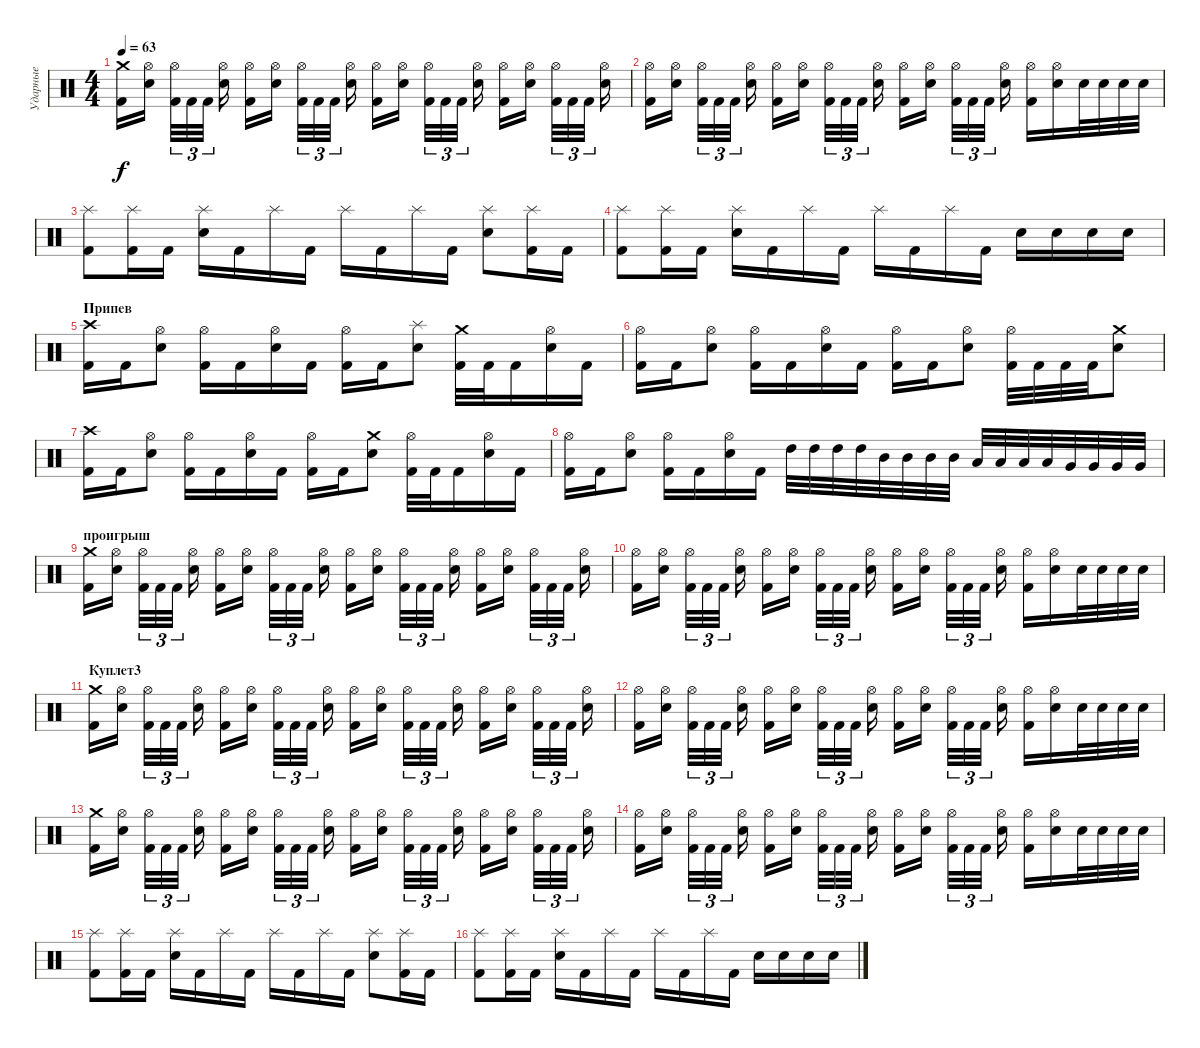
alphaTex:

\track ("Ударные" "Ударные") {instrument percussion}
\staff {score}
\articulation defaults
\ts (4 4)
\tempo 63
\clef neutral
\ks c
("Kick (hit) 2" "Crash medium (hit)").16{dy f} ("Snare (hit) 2" "Hi-Hat (open)").16 ("Kick (hit) 2" "Hi-Hat (open)").32{tu (3 2)} "Kick (hit) 2".32{tu (3 2)} "Kick (hit) 2".32{tu (3 2)} ("Snare (hit) 2" "Hi-Hat (open)").16 ("Kick (hit) 2" "Hi-Hat (open)").16 ("Snare (hit) 2" "Hi-Hat (open)").16 ("Kick (hit) 2" "Hi-Hat (open)").32{tu (3 2)} "Kick (hit) 2".32{tu (3 2)} "Kick (hit) 2".32{tu (3 2)} ("Snare (hit) 2" "Hi-Hat (open)").16 ("Kick (hit) 2" "Hi-Hat (open)").16 ("Snare (hit) 2" "Hi-Hat (open)").16 ("Kick (hit) 2" "Hi-Hat (open)").32{tu (3 2)} "Kick (hit) 2".32{tu (3 2)} "Kick (hit) 2".32{tu (3 2)} ("Snare (hit) 2" "Hi-Hat (open)").16 ("Kick (hit) 2" "Hi-Hat (open)").16 ("Snare (hit) 2" "Hi-Hat (open)").16 ("Kick (hit) 2" "Hi-Hat (open)").32{tu (3 2)} "Kick (hit) 2".32{tu (3 2)} "Kick (hit) 2".32{tu (3 2)} ("Snare (hit) 2" "Hi-Hat (open)").16 |
("Kick (hit) 2" "Hi-Hat (open)").16 ("Snare (hit) 2" "Hi-Hat (open)").16 ("Kick (hit) 2" "Hi-Hat (open)").32{tu (3 2)} "Kick (hit) 2".32{tu (3 2)} "Kick (hit) 2".32{tu (3 2)} ("Snare (hit) 2" "Hi-Hat (open)").16 ("Kick (hit) 2" "Hi-Hat (open)").16 ("Snare (hit) 2" "Hi-Hat (open)").16 ("Kick (hit) 2" "Hi-Hat (open)").32{tu (3 2)} "Kick (hit) 2".32{tu (3 2)} "Kick (hit) 2".32{tu (3 2)} ("Snare (hit) 2" "Hi-Hat (open)").16 ("Kick (hit) 2" "Hi-Hat (open)").16 ("Snare (hit) 2" "Hi-Hat (open)").16 ("Kick (hit) 2" "Hi-Hat (open)").32{tu (3 2)} "Kick (hit) 2".32{tu (3 2)} "Kick (hit) 2".32{tu (3 2)} ("Snare (hit) 2" "Hi-Hat (open)").16 ("Kick (hit) 2" "Hi-Hat (open)").16 ("Snare (hit) 2" "Hi-Hat (open)").16 "Snare (hit) 2".32 "Snare (hit) 2".32 "Snare (hit) 2".32 "Snare (hit) 2".32 |
("Kick (hit) 2" "Splash (hit)").8 ("Kick (hit) 2" "Splash (hit)").16 "Kick (hit) 2".16 ("Snare (hit) 2" "Splash (hit)").16 "Kick (hit) 2".16 "Splash (hit)".16 "Kick (hit) 2".16 "Splash (hit)".16 "Kick (hit) 2".16 "Splash (hit)".16 "Kick (hit) 2".16 ("Snare (hit) 2" "Splash (hit)").8 ("Kick (hit) 2" "Splash (hit)").16 "Kick (hit) 2".16 |
("Kick (hit) 2" "Splash (hit)").8 ("Kick (hit) 2" "Splash (hit)").16 "Kick (hit) 2".16 ("Snare (hit) 2" "Splash (hit)").16 "Kick (hit) 2".16 "Splash (hit)".16 "Kick (hit) 2".16 "Splash (hit)".16 "Kick (hit) 2".16 "Splash (hit)".16 "Kick (hit) 2".16 "Snare (hit) 2".16 "Snare (hit) 2".16 "Snare (hit) 2".16 "Snare (hit) 2".16 |
\section ("" "Припев")
("Kick (hit) 2" "Crash high (hit)").16 "Kick (hit) 2".16 ("Snare (hit) 2" "Hi-Hat (open)").8 ("Kick (hit) 2" "Hi-Hat (open)").16 "Kick (hit) 2".16 ("Snare (hit) 2" "Hi-Hat (open)").16 "Kick (hit) 2".16 ("Kick (hit) 2" "Hi-Hat (open)").16 "Kick (hit) 2".16 ("Snare (hit) 2" "Splash (hit)").8 ("Kick (hit) 2" "Crash medium (hit)").32 "Kick (hit) 2".32 "Kick (hit) 2".16 ("Snare (hit) 2" "Hi-Hat (open)").16 "Kick (hit) 2".16 |
("Kick (hit) 2" "Hi-Hat (open)").16 "Kick (hit) 2".16 ("Snare (hit) 2" "Hi-Hat (open)").8 ("Kick (hit) 2" "Hi-Hat (open)").16 "Kick (hit) 2".16 ("Snare (hit) 2" "Hi-Hat (open)").16 "Kick (hit) 2".16 ("Kick (hit) 2" "Hi-Hat (open)").16 "Kick (hit) 2".16 ("Snare (hit) 2" "Hi-Hat (open)").8 ("Kick (hit) 2" "Hi-Hat (open)").32 "Kick (hit) 2".32 "Kick (hit) 2".32 "Kick (hit) 2".32 ("Snare (hit) 2" "Crash medium (hit)").8 |
("Kick (hit) 2" "Crash high (hit)").16 "Kick (hit) 2".16 ("Snare (hit) 2" "Hi-Hat (open)").8 ("Kick (hit) 2" "Hi-Hat (open)").16 "Kick (hit) 2".16 ("Snare (hit) 2" "Hi-Hat (open)").16 "Kick (hit) 2".16 ("Kick (hit) 2" "Hi-Hat (open)").16 "Kick (hit) 2".16 ("Snare (hit) 2" "Crash medium (hit)").8 ("Kick (hit) 2" "Hi-Hat (open)").32 "Kick (hit) 2".32 "Kick (hit) 2".16 ("Snare (hit) 2" "Hi-Hat (open)").16 "Kick (hit) 2".16 |
("Kick (hit) 2" "Hi-Hat (open)").16 "Kick (hit) 2".16 ("Snare (hit) 2" "Hi-Hat (open)").8 ("Kick (hit) 2" "Hi-Hat (open)").16 "Kick (hit) 2".16 ("Snare (hit) 2" "Hi-Hat (open)").16 "Kick (hit) 2".16 "High Tom (hit)".32 "High Tom (hit)".32 "High Tom (hit)".32 "High Tom (hit)".32 "Mid Tom (hit)".32 "Mid Tom (hit)".32 "Mid Tom (hit)".32 "Mid Tom (hit)".32 "Low Tom (hit)".32 "Low Tom (hit)".32 "Low Tom (hit)".32 "Low Tom (hit)".32 "Very Low Tom (hit)".32 "Very Low Tom (hit)".32 "Very Low Tom (hit)".32 "Very Low Tom (hit)".32 |
\section ("" "проигрыш")
("Kick (hit) 2" "Crash medium (hit)").16 ("Snare (hit) 2" "Hi-Hat (open)").16 ("Kick (hit) 2" "Hi-Hat (open)").32{tu (3 2)} "Kick (hit) 2".32{tu (3 2)} "Kick (hit) 2".32{tu (3 2)} ("Snare (hit) 2" "Hi-Hat (open)").16 ("Kick (hit) 2" "Hi-Hat (open)").16 ("Snare (hit) 2" "Hi-Hat (open)").16 ("Kick (hit) 2" "Hi-Hat (open)").32{tu (3 2)} "Kick (hit) 2".32{tu (3 2)} "Kick (hit) 2".32{tu (3 2)} ("Snare (hit) 2" "Hi-Hat (open)").16 ("Kick (hit) 2" "Hi-Hat (open)").16 ("Snare (hit) 2" "Hi-Hat (open)").16 ("Kick (hit) 2" "Hi-Hat (open)").32{tu (3 2)} "Kick (hit) 2".32{tu (3 2)} "Kick (hit) 2".32{tu (3 2)} ("Snare (hit) 2" "Hi-Hat (open)").16 ("Kick (hit) 2" "Hi-Hat (open)").16 ("Snare (hit) 2" "Hi-Hat (open)").16 ("Kick (hit) 2" "Hi-Hat (open)").32{tu (3 2)} "Kick (hit) 2".32{tu (3 2)} "Kick (hit) 2".32{tu (3 2)} ("Snare (hit) 2" "Hi-Hat (open)").16 |
("Kick (hit) 2" "Hi-Hat (open)").16 ("Snare (hit) 2" "Hi-Hat (open)").16 ("Kick (hit) 2" "Hi-Hat (open)").32{tu (3 2)} "Kick (hit) 2".32{tu (3 2)} "Kick (hit) 2".32{tu (3 2)} ("Snare (hit) 2" "Hi-Hat (open)").16 ("Kick (hit) 2" "Hi-Hat (open)").16 ("Snare (hit) 2" "Hi-Hat (open)").16 ("Kick (hit) 2" "Hi-Hat (open)").32{tu (3 2)} "Kick (hit) 2".32{tu (3 2)} "Kick (hit) 2".32{tu (3 2)} ("Snare (hit) 2" "Hi-Hat (open)").16 ("Kick (hit) 2" "Hi-Hat (open)").16 ("Snare (hit) 2" "Hi-Hat (open)").16 ("Kick (hit) 2" "Hi-Hat (open)").32{tu (3 2)} "Kick (hit) 2".32{tu (3 2)} "Kick (hit) 2".32{tu (3 2)} ("Snare (hit) 2" "Hi-Hat (open)").16 ("Kick (hit) 2" "Hi-Hat (open)").16 ("Snare (hit) 2" "Hi-Hat (open)").16 "Snare (hit) 2".32 "Snare (hit) 2".32 "Snare (hit) 2".32 "Snare (hit) 2".32 |
\section ("" "Куплет3")
("Kick (hit) 2" "Crash medium (hit)").16 ("Snare (hit) 2" "Hi-Hat (open)").16 ("Kick (hit) 2" "Hi-Hat (open)").32{tu (3 2)} "Kick (hit) 2".32{tu (3 2)} "Kick (hit) 2".32{tu (3 2)} ("Snare (hit) 2" "Hi-Hat (open)").16 ("Kick (hit) 2" "Hi-Hat (open)").16 ("Snare (hit) 2" "Hi-Hat (open)").16 ("Kick (hit) 2" "Hi-Hat (open)").32{tu (3 2)} "Kick (hit) 2".32{tu (3 2)} "Kick (hit) 2".32{tu (3 2)} ("Snare (hit) 2" "Hi-Hat (open)").16 ("Kick (hit) 2" "Hi-Hat (open)").16 ("Snare (hit) 2" "Hi-Hat (open)").16 ("Kick (hit) 2" "Hi-Hat (open)").32{tu (3 2)} "Kick (hit) 2".32{tu (3 2)} "Kick (hit) 2".32{tu (3 2)} ("Snare (hit) 2" "Hi-Hat (open)").16 ("Kick (hit) 2" "Hi-Hat (open)").16 ("Snare (hit) 2" "Hi-Hat (open)").16 ("Kick (hit) 2" "Hi-Hat (open)").32{tu (3 2)} "Kick (hit) 2".32{tu (3 2)} "Kick (hit) 2".32{tu (3 2)} ("Snare (hit) 2" "Hi-Hat (open)").16 |
("Kick (hit) 2" "Hi-Hat (open)").16 ("Snare (hit) 2" "Hi-Hat (open)").16 ("Kick (hit) 2" "Hi-Hat (open)").32{tu (3 2)} "Kick (hit) 2".32{tu (3 2)} "Kick (hit) 2".32{tu (3 2)} ("Snare (hit) 2" "Hi-Hat (open)").16 ("Kick (hit) 2" "Hi-Hat (open)").16 ("Snare (hit) 2" "Hi-Hat (open)").16 ("Kick (hit) 2" "Hi-Hat (open)").32{tu (3 2)} "Kick (hit) 2".32{tu (3 2)} "Kick (hit) 2".32{tu (3 2)} ("Snare (hit) 2" "Hi-Hat (open)").16 ("Kick (hit) 2" "Hi-Hat (open)").16 ("Snare (hit) 2" "Hi-Hat (open)").16 ("Kick (hit) 2" "Hi-Hat (open)").32{tu (3 2)} "Kick (hit) 2".32{tu (3 2)} "Kick (hit) 2".32{tu (3 2)} ("Snare (hit) 2" "Hi-Hat (open)").16 ("Kick (hit) 2" "Hi-Hat (open)").16 ("Snare (hit) 2" "Hi-Hat (open)").16 "Snare (hit) 2".32 "Snare (hit) 2".32 "Snare (hit) 2".32 "Snare (hit) 2".32 |
("Kick (hit) 2" "Crash medium (hit)").16 ("Snare (hit) 2" "Hi-Hat (open)").16 ("Kick (hit) 2" "Hi-Hat (open)").32{tu (3 2)} "Kick (hit) 2".32{tu (3 2)} "Kick (hit) 2".32{tu (3 2)} ("Snare (hit) 2" "Hi-Hat (open)").16 ("Kick (hit) 2" "Hi-Hat (open)").16 ("Snare (hit) 2" "Hi-Hat (open)").16 ("Kick (hit) 2" "Hi-Hat (open)").32{tu (3 2)} "Kick (hit) 2".32{tu (3 2)} "Kick (hit) 2".32{tu (3 2)} ("Snare (hit) 2" "Hi-Hat (open)").16 ("Kick (hit) 2" "Hi-Hat (open)").16 ("Snare (hit) 2" "Hi-Hat (open)").16 ("Kick (hit) 2" "Hi-Hat (open)").32{tu (3 2)} "Kick (hit) 2".32{tu (3 2)} "Kick (hit) 2".32{tu (3 2)} ("Snare (hit) 2" "Hi-Hat (open)").16 ("Kick (hit) 2" "Hi-Hat (open)").16 ("Snare (hit) 2" "Hi-Hat (open)").16 ("Kick (hit) 2" "Hi-Hat (open)").32{tu (3 2)} "Kick (hit) 2".32{tu (3 2)} "Kick (hit) 2".32{tu (3 2)} ("Snare (hit) 2" "Hi-Hat (open)").16 |
("Kick (hit) 2" "Hi-Hat (open)").16 ("Snare (hit) 2" "Hi-Hat (open)").16 ("Kick (hit) 2" "Hi-Hat (open)").32{tu (3 2)} "Kick (hit) 2".32{tu (3 2)} "Kick (hit) 2".32{tu (3 2)} ("Snare (hit) 2" "Hi-Hat (open)").16 ("Kick (hit) 2" "Hi-Hat (open)").16 ("Snare (hit) 2" "Hi-Hat (open)").16 ("Kick (hit) 2" "Hi-Hat (open)").32{tu (3 2)} "Kick (hit) 2".32{tu (3 2)} "Kick (hit) 2".32{tu (3 2)} ("Snare (hit) 2" "Hi-Hat (open)").16 ("Kick (hit) 2" "Hi-Hat (open)").16 ("Snare (hit) 2" "Hi-Hat (open)").16 ("Kick (hit) 2" "Hi-Hat (open)").32{tu (3 2)} "Kick (hit) 2".32{tu (3 2)} "Kick (hit) 2".32{tu (3 2)} ("Snare (hit) 2" "Hi-Hat (open)").16 ("Kick (hit) 2" "Hi-Hat (open)").16 ("Snare (hit) 2" "Hi-Hat (open)").16 "Snare (hit) 2".32 "Snare (hit) 2".32 "Snare (hit) 2".32 "Snare (hit) 2".32 |
("Kick (hit) 2" "Splash (hit)").8 ("Kick (hit) 2" "Splash (hit)").16 "Kick (hit) 2".16 ("Snare (hit) 2" "Splash (hit)").16 "Kick (hit) 2".16 "Splash (hit)".16 "Kick (hit) 2".16 "Splash (hit)".16 "Kick (hit) 2".16 "Splash (hit)".16 "Kick (hit) 2".16 ("Snare (hit) 2" "Splash (hit)").8 ("Kick (hit) 2" "Splash (hit)").16 "Kick (hit) 2".16 |
("Kick (hit) 2" "Splash (hit)").8 ("Kick (hit) 2" "Splash (hit)").16 "Kick (hit) 2".16 ("Snare (hit) 2" "Splash (hit)").16 "Kick (hit) 2".16 "Splash (hit)".16 "Kick (hit) 2".16 "Splash (hit)".16 "Kick (hit) 2".16 "Splash (hit)".16 "Kick (hit) 2".16 "Snare (hit) 2".16 "Snare (hit) 2".16 "Snare (hit) 2".16 "Snare (hit) 2".16
